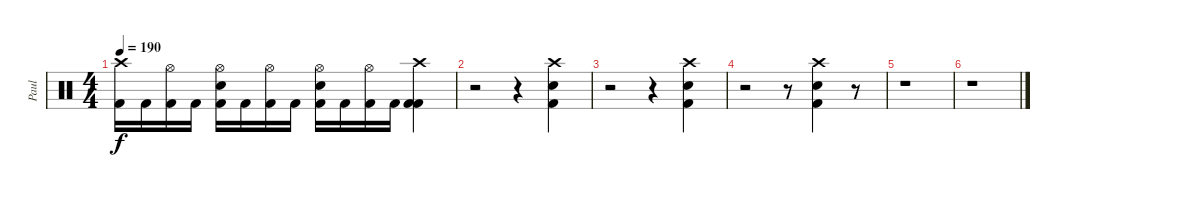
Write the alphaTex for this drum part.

\track ("Paul" "Paul") {instrument percussion}
\staff {score}
\articulation defaults
\ts (4 4)
\tempo 190
\clef neutral
\ks c
("Crash high (hit)" "Kick (hit) 2").16{dy f} "Kick (hit) 2".16 ("Hi-Hat (open)" "Kick (hit) 2").16 "Kick (hit) 2".16 ("Hi-Hat (open)" "Snare (hit) 2" "Kick (hit) 2").16 "Kick (hit) 2".16 ("Hi-Hat (open)" "Kick (hit) 2").16 "Kick (hit) 2".16 ("Hi-Hat (open)" "Snare (hit) 2" "Kick (hit) 2").16 "Kick (hit) 2".16 ("Hi-Hat (open)" "Kick (hit) 2").16 "Kick (hit) 2".16 ("Crash high (hit)" "Kick (hit) 2" "Kick (hit) 2").4 |
r.2 r.4 ("Crash high (hit)" "Snare (hit) 2" "Kick (hit) 2").4 |
r.2 r.4 ("Crash high (hit)" "Snare (hit) 2" "Kick (hit) 2").4 |
r.2 r.8 ("Crash high (hit)" "Snare (hit) 2" "Kick (hit) 2").4 r.8 |
r.1 |
r.1
